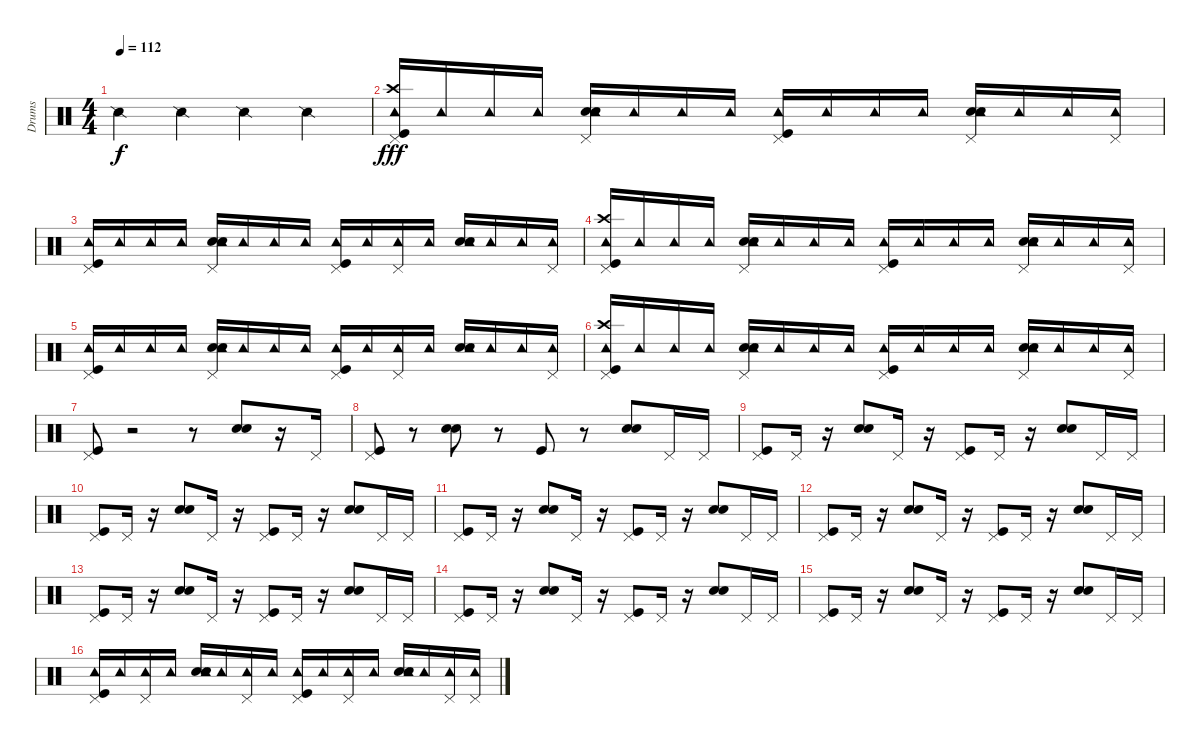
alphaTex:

\track ("Drums" "Drums") {instrument percussion}
\staff {score}
\articulation defaults
\ts (4 4)
\tempo 112
\clef neutral
\ks c "Snare (side stick) 2".4{dy f} "Snare (side stick) 2".4 "Snare (side stick) 2".4 "Snare (side stick) 2".4
|
("Pedal Hi-Hat (hit)" "Crash high (hit)" "Tambourine (hit)" "Kick (hit)").16{dy fff} "Tambourine (hit)".16 "Tambourine (hit)".16 "Tambourine (hit)".16 ("Snare (hit) 2" "Hand Clap (hit)" "Pedal Hi-Hat (hit)" "Tambourine (hit)").16 "Tambourine (hit)".16 "Tambourine (hit)".16 "Tambourine (hit)".16 ("Pedal Hi-Hat (hit)" "Tambourine (hit)" "Kick (hit)").16 "Tambourine (hit)".16 "Tambourine (hit)".16 "Tambourine (hit)".16 ("Snare (hit) 2" "Hand Clap (hit)" "Pedal Hi-Hat (hit)" "Tambourine (hit)").16 "Tambourine (hit)".16 "Tambourine (hit)".16 ("Pedal Hi-Hat (hit)" "Tambourine (hit)").16 |
("Tambourine (hit)" "Pedal Hi-Hat (hit)" "Kick (hit)").16 "Tambourine (hit)".16 "Tambourine (hit)".16 "Tambourine (hit)".16 ("Snare (hit) 2" "Hand Clap (hit)" "Pedal Hi-Hat (hit)" "Tambourine (hit)").16 "Tambourine (hit)".16 "Tambourine (hit)".16 "Tambourine (hit)".16 ("Pedal Hi-Hat (hit)" "Tambourine (hit)" "Kick (hit)").16 "Tambourine (hit)".16 ("Tambourine (hit)" "Pedal Hi-Hat (hit)").16 "Tambourine (hit)".16 ("Snare (hit) 2" "Hand Clap (hit)" "Tambourine (hit)").16 "Tambourine (hit)".16 "Tambourine (hit)".16 ("Pedal Hi-Hat (hit)" "Tambourine (hit)").16 |
("Pedal Hi-Hat (hit)" "Crash high (hit)" "Tambourine (hit)" "Kick (hit)").16 "Tambourine (hit)".16 "Tambourine (hit)".16 "Tambourine (hit)".16 ("Snare (hit) 2" "Hand Clap (hit)" "Pedal Hi-Hat (hit)" "Tambourine (hit)").16 "Tambourine (hit)".16 "Tambourine (hit)".16 "Tambourine (hit)".16 ("Pedal Hi-Hat (hit)" "Tambourine (hit)" "Kick (hit)").16 "Tambourine (hit)".16 "Tambourine (hit)".16 "Tambourine (hit)".16 ("Snare (hit) 2" "Hand Clap (hit)" "Pedal Hi-Hat (hit)" "Tambourine (hit)").16 "Tambourine (hit)".16 "Tambourine (hit)".16 ("Pedal Hi-Hat (hit)" "Tambourine (hit)").16 |
("Pedal Hi-Hat (hit)" "Tambourine (hit)" "Kick (hit)").16 "Tambourine (hit)".16 "Tambourine (hit)".16 "Tambourine (hit)".16 ("Snare (hit) 2" "Hand Clap (hit)" "Pedal Hi-Hat (hit)" "Tambourine (hit)").16 "Tambourine (hit)".16 "Tambourine (hit)".16 "Tambourine (hit)".16 ("Pedal Hi-Hat (hit)" "Tambourine (hit)" "Kick (hit)").16 "Tambourine (hit)".16 ("Tambourine (hit)" "Pedal Hi-Hat (hit)").16 "Tambourine (hit)".16 ("Snare (hit) 2" "Hand Clap (hit)" "Tambourine (hit)").16 "Tambourine (hit)".16 "Tambourine (hit)".16 ("Pedal Hi-Hat (hit)" "Tambourine (hit)").16 |
("Pedal Hi-Hat (hit)" "Crash high (hit)" "Tambourine (hit)" "Kick (hit)").16 "Tambourine (hit)".16 "Tambourine (hit)".16 "Tambourine (hit)".16 ("Snare (hit) 2" "Hand Clap (hit)" "Pedal Hi-Hat (hit)" "Tambourine (hit)").16 "Tambourine (hit)".16 "Tambourine (hit)".16 "Tambourine (hit)".16 ("Pedal Hi-Hat (hit)" "Tambourine (hit)" "Kick (hit)").16 "Tambourine (hit)".16 "Tambourine (hit)".16 "Tambourine (hit)".16 ("Snare (hit) 2" "Hand Clap (hit)" "Pedal Hi-Hat (hit)" "Tambourine (hit)").16 "Tambourine (hit)".16 "Tambourine (hit)".16 ("Pedal Hi-Hat (hit)" "Tambourine (hit)").16 |
("Pedal Hi-Hat (hit)" "Kick (hit)").8 r.2 r.8 ("Snare (hit) 2" "Hand Clap (hit)").8 r.16 "Pedal Hi-Hat (hit)".16 |
("Pedal Hi-Hat (hit)" "Kick (hit)").8 r.8 ("Snare (hit) 2" "Hand Clap (hit)").8 r.8 "Kick (hit)".8 r.8 ("Snare (hit) 2" "Hand Clap (hit)").8 "Pedal Hi-Hat (hit)".16 "Pedal Hi-Hat (hit)".16 |
("Pedal Hi-Hat (hit)" "Kick (hit)").8 "Pedal Hi-Hat (hit)".16 r.16 ("Snare (hit) 2" "Hand Clap (hit)").8 "Pedal Hi-Hat (hit)".16 r.16 ("Pedal Hi-Hat (hit)" "Kick (hit)").8 "Pedal Hi-Hat (hit)".16 r.16 ("Snare (hit) 2" "Hand Clap (hit)").8 "Pedal Hi-Hat (hit)".16 "Pedal Hi-Hat (hit)".16 |
("Pedal Hi-Hat (hit)" "Kick (hit)").8 "Pedal Hi-Hat (hit)".16 r.16 ("Snare (hit) 2" "Hand Clap (hit)").8 "Pedal Hi-Hat (hit)".16 r.16 ("Pedal Hi-Hat (hit)" "Kick (hit)").8 "Pedal Hi-Hat (hit)".16 r.16 ("Snare (hit) 2" "Hand Clap (hit)").8 "Pedal Hi-Hat (hit)".16 "Pedal Hi-Hat (hit)".16 |
("Pedal Hi-Hat (hit)" "Kick (hit)").8 "Pedal Hi-Hat (hit)".16 r.16 ("Snare (hit) 2" "Hand Clap (hit)").8 "Pedal Hi-Hat (hit)".16 r.16 ("Pedal Hi-Hat (hit)" "Kick (hit)").8 "Pedal Hi-Hat (hit)".16 r.16 ("Snare (hit) 2" "Hand Clap (hit)").8 "Pedal Hi-Hat (hit)".16 "Pedal Hi-Hat (hit)".16 |
("Pedal Hi-Hat (hit)" "Kick (hit)").8 "Pedal Hi-Hat (hit)".16 r.16 ("Snare (hit) 2" "Hand Clap (hit)").8 "Pedal Hi-Hat (hit)".16 r.16 ("Pedal Hi-Hat (hit)" "Kick (hit)").8 "Pedal Hi-Hat (hit)".16 r.16 ("Snare (hit) 2" "Hand Clap (hit)").8 "Pedal Hi-Hat (hit)".16 "Pedal Hi-Hat (hit)".16 |
("Pedal Hi-Hat (hit)" "Kick (hit)").8 "Pedal Hi-Hat (hit)".16 r.16 ("Snare (hit) 2" "Hand Clap (hit)").8 "Pedal Hi-Hat (hit)".16 r.16 ("Pedal Hi-Hat (hit)" "Kick (hit)").8 "Pedal Hi-Hat (hit)".16 r.16 ("Snare (hit) 2" "Hand Clap (hit)").8 "Pedal Hi-Hat (hit)".16 "Pedal Hi-Hat (hit)".16 |
("Pedal Hi-Hat (hit)" "Kick (hit)").8 "Pedal Hi-Hat (hit)".16 r.16 ("Snare (hit) 2" "Hand Clap (hit)").8 "Pedal Hi-Hat (hit)".16 r.16 ("Pedal Hi-Hat (hit)" "Kick (hit)").8 "Pedal Hi-Hat (hit)".16 r.16 ("Snare (hit) 2" "Hand Clap (hit)").8 "Pedal Hi-Hat (hit)".16 "Pedal Hi-Hat (hit)".16 |
("Pedal Hi-Hat (hit)" "Kick (hit)").8 "Pedal Hi-Hat (hit)".16 r.16 ("Snare (hit) 2" "Hand Clap (hit)").8 "Pedal Hi-Hat (hit)".16 r.16 ("Pedal Hi-Hat (hit)" "Kick (hit)").8 "Pedal Hi-Hat (hit)".16 r.16 ("Snare (hit) 2" "Hand Clap (hit)").8 "Pedal Hi-Hat (hit)".16 "Pedal Hi-Hat (hit)".16 |
("Pedal Hi-Hat (hit)" "Tambourine (hit)" "Kick (hit)").16 "Tambourine (hit)".16 ("Pedal Hi-Hat (hit)" "Tambourine (hit)").16 "Tambourine (hit)".16 ("Snare (hit) 2" "Hand Clap (hit)" "Tambourine (hit)").16 "Tambourine (hit)".16 ("Pedal Hi-Hat (hit)" "Tambourine (hit)").16 "Tambourine (hit)".16 ("Pedal Hi-Hat (hit)" "Tambourine (hit)" "Kick (hit)").16 "Tambourine (hit)".16 ("Pedal Hi-Hat (hit)" "Tambourine (hit)").16 "Tambourine (hit)".16 ("Snare (hit) 2" "Hand Clap (hit)" "Tambourine (hit)").16 "Tambourine (hit)".16 ("Pedal Hi-Hat (hit)" "Tambourine (hit)").16 ("Pedal Hi-Hat (hit)" "Tambourine (hit)").16
